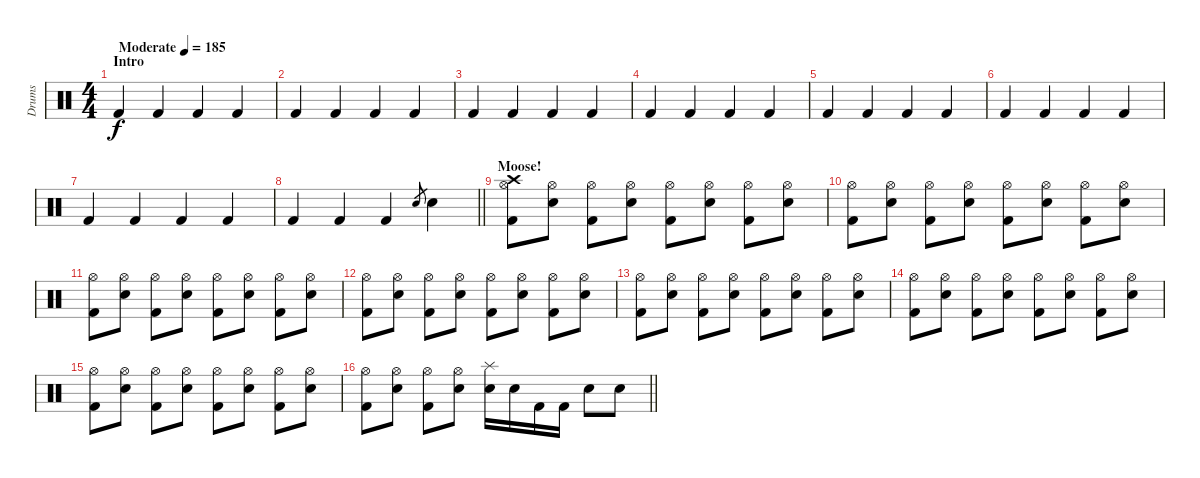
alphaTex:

\track ("Drums" "Drums") {instrument percussion}
\staff {score}
\articulation defaults
\ts (4 4)
\section ("" "Intro")
\tempo (185 "Moderate")
\clef neutral
\ks c "Kick (hit) 2".4{dy f} "Kick (hit) 2".4 "Kick (hit) 2".4 "Kick (hit) 2".4
|
"Kick (hit) 2".4 "Kick (hit) 2".4 "Kick (hit) 2".4 "Kick (hit) 2".4 |
"Kick (hit) 2".4 "Kick (hit) 2".4 "Kick (hit) 2".4 "Kick (hit) 2".4 |
"Kick (hit) 2".4 "Kick (hit) 2".4 "Kick (hit) 2".4 "Kick (hit) 2".4 |
"Kick (hit) 2".4 "Kick (hit) 2".4 "Kick (hit) 2".4 "Kick (hit) 2".4 |
"Kick (hit) 2".4 "Kick (hit) 2".4 "Kick (hit) 2".4 "Kick (hit) 2".4 |
"Kick (hit) 2".4 "Kick (hit) 2".4 "Kick (hit) 2".4 "Kick (hit) 2".4 |
\barLineRight lightlight "Kick (hit) 2".4 "Kick (hit) 2".4 "Kick (hit) 2".4 "Snare (hit) 2".8{gr} "Snare (hit) 2".4
|
\section ("" "Moose!")
("Hi-Hat (open)" "Crash high (hit)" "Kick (hit) 2").8 ("Hi-Hat (open)" "Snare (hit) 2").8 ("Hi-Hat (open)" "Kick (hit) 2").8 ("Hi-Hat (open)" "Snare (hit) 2").8 ("Hi-Hat (open)" "Kick (hit) 2").8 ("Hi-Hat (open)" "Snare (hit) 2").8 ("Hi-Hat (open)" "Kick (hit) 2").8 ("Hi-Hat (open)" "Snare (hit) 2").8 |
("Hi-Hat (open)" "Kick (hit) 2").8 ("Hi-Hat (open)" "Snare (hit) 2").8 ("Hi-Hat (open)" "Kick (hit) 2").8 ("Hi-Hat (open)" "Snare (hit) 2").8 ("Hi-Hat (open)" "Kick (hit) 2").8 ("Hi-Hat (open)" "Snare (hit) 2").8 ("Hi-Hat (open)" "Kick (hit) 2").8 ("Hi-Hat (open)" "Snare (hit) 2").8 |
("Hi-Hat (open)" "Kick (hit) 2").8 ("Hi-Hat (open)" "Snare (hit) 2").8 ("Hi-Hat (open)" "Kick (hit) 2").8 ("Hi-Hat (open)" "Snare (hit) 2").8 ("Hi-Hat (open)" "Kick (hit) 2").8 ("Hi-Hat (open)" "Snare (hit) 2").8 ("Hi-Hat (open)" "Kick (hit) 2").8 ("Hi-Hat (open)" "Snare (hit) 2").8 |
("Hi-Hat (open)" "Kick (hit) 2").8 ("Hi-Hat (open)" "Snare (hit) 2").8 ("Hi-Hat (open)" "Kick (hit) 2").8 ("Hi-Hat (open)" "Snare (hit) 2").8 ("Hi-Hat (open)" "Kick (hit) 2").8 ("Hi-Hat (open)" "Snare (hit) 2").8 ("Hi-Hat (open)" "Kick (hit) 2").8 ("Hi-Hat (open)" "Snare (hit) 2").8 |
("Hi-Hat (open)" "Kick (hit) 2").8 ("Hi-Hat (open)" "Snare (hit) 2").8 ("Hi-Hat (open)" "Kick (hit) 2").8 ("Hi-Hat (open)" "Snare (hit) 2").8 ("Hi-Hat (open)" "Kick (hit) 2").8 ("Hi-Hat (open)" "Snare (hit) 2").8 ("Hi-Hat (open)" "Kick (hit) 2").8 ("Hi-Hat (open)" "Snare (hit) 2").8 |
("Hi-Hat (open)" "Kick (hit) 2").8 ("Hi-Hat (open)" "Snare (hit) 2").8 ("Hi-Hat (open)" "Kick (hit) 2").8 ("Hi-Hat (open)" "Snare (hit) 2").8 ("Hi-Hat (open)" "Kick (hit) 2").8 ("Hi-Hat (open)" "Snare (hit) 2").8 ("Hi-Hat (open)" "Kick (hit) 2").8 ("Hi-Hat (open)" "Snare (hit) 2").8 |
("Hi-Hat (open)" "Kick (hit) 2").8 ("Hi-Hat (open)" "Snare (hit) 2").8 ("Hi-Hat (open)" "Kick (hit) 2").8 ("Hi-Hat (open)" "Snare (hit) 2").8 ("Hi-Hat (open)" "Kick (hit) 2").8 ("Hi-Hat (open)" "Snare (hit) 2").8 ("Hi-Hat (open)" "Kick (hit) 2").8 ("Hi-Hat (open)" "Snare (hit) 2").8 |
\barLineRight lightlight
("Hi-Hat (open)" "Kick (hit) 2").8 ("Hi-Hat (open)" "Snare (hit) 2").8 ("Hi-Hat (open)" "Kick (hit) 2").8 ("Hi-Hat (open)" "Snare (hit) 2").8 ("Splash (hit)" "Snare (hit) 2").16 "Snare (hit) 2".16 "Kick (hit) 2".16 "Kick (hit) 2".16 "Snare (hit) 2".8 "Snare (hit) 2".8
